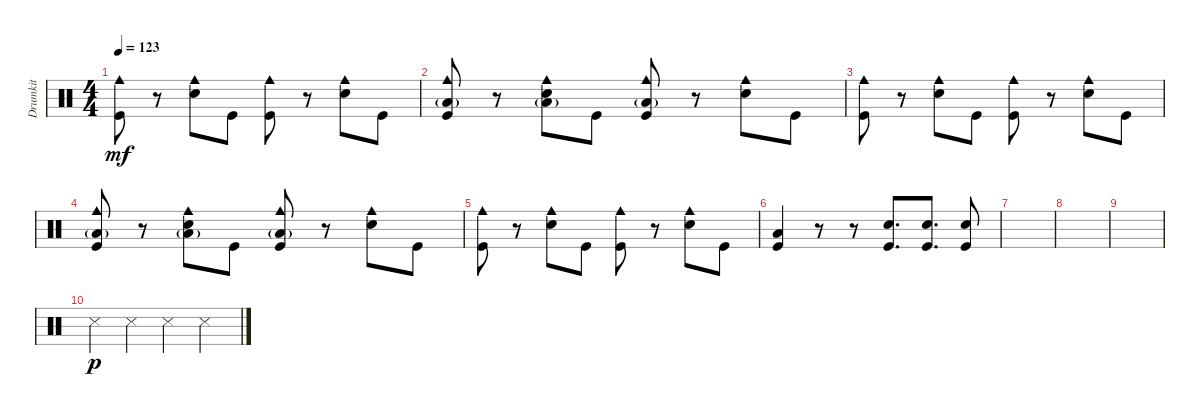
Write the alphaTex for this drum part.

\track ("Drumkit" "Drumkit") {instrument percussion}
\staff {score}
\articulation defaults
\ts (4 4)
\tempo 123
\clef neutral
\ks c
("Kick (hit)" "Cowbell medium (hit)").8{dy mf} r.8 ("Snare (hit) 2" "Cowbell medium (hit)").8 "Kick (hit)".8 ("Kick (hit)" "Cowbell medium (hit)").8 r.8 ("Snare (hit) 2" "Cowbell medium (hit)").8 "Kick (hit)".8 |
("Kick (hit)" "Low Floor Tom (hit)"{g} "Cowbell medium (hit)").8 r.8 ("Snare (hit) 2" "Low Floor Tom (hit)"{g} "Cowbell medium (hit)").8 "Kick (hit)".8 ("Kick (hit)" "Low Floor Tom (hit)"{g} "Cowbell medium (hit)").8 r.8 ("Snare (hit) 2" "Cowbell medium (hit)").8 "Kick (hit)".8 |
("Kick (hit)" "Cowbell medium (hit)").8 r.8 ("Snare (hit) 2" "Cowbell medium (hit)").8 "Kick (hit)".8 ("Kick (hit)" "Cowbell medium (hit)").8 r.8 ("Snare (hit) 2" "Cowbell medium (hit)").8 "Kick (hit)".8 |
("Kick (hit)" "Low Floor Tom (hit)"{g} "Cowbell medium (hit)").8 r.8 ("Snare (hit) 2" "Low Floor Tom (hit)"{g} "Cowbell medium (hit)").8 "Kick (hit)".8 ("Kick (hit)" "Low Floor Tom (hit)"{g} "Cowbell medium (hit)").8 r.8 ("Snare (hit) 2" "Cowbell medium (hit)").8 "Kick (hit)".8 |
("Kick (hit)" "Cowbell medium (hit)").8 r.8 ("Snare (hit) 2" "Cowbell medium (hit)").8 "Kick (hit)".8 ("Kick (hit)" "Cowbell medium (hit)").8 r.8 ("Snare (hit) 2" "Cowbell medium (hit)").8 "Kick (hit)".8 |
("Kick (hit)" "Low Floor Tom (hit)").4 r.8 r.8 ("Kick (hit)" "Snare (hit) 2").8{d} ("Kick (hit)" "Snare (hit) 2").8{d} ("Kick (hit)" "Snare (hit) 2").8 |
|
|
|
"Snare (side stick) 3".4{dy p} "Snare (side stick) 3".4 "Snare (side stick) 3".4 "Snare (side stick) 3".4
